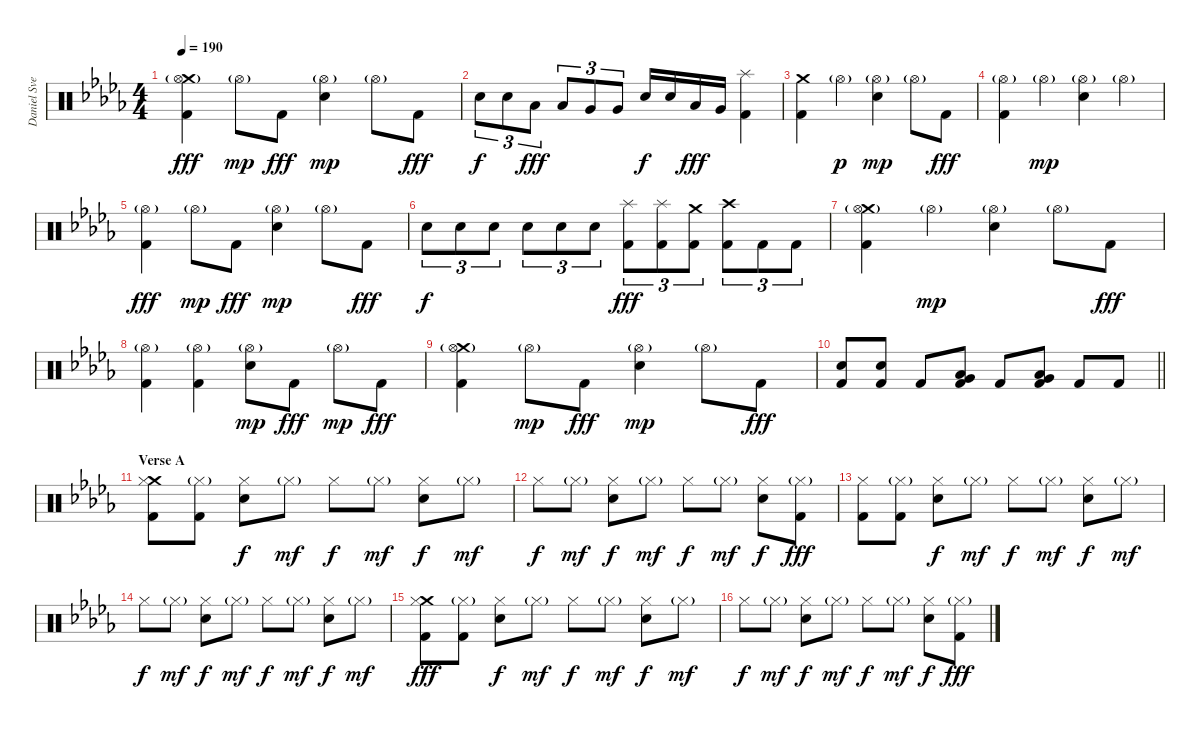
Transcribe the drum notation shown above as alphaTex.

\track ("Daniel Svensson" "Daniel Sve") {instrument percussion}
\staff {score}
\articulation defaults
\ts (4 4)
\tempo 190
\clef neutral
\ks db
("Crash medium (hit)" "Hi-Hat (open)"{g} "Kick (hit) 2").4{dy fff} "Hi-Hat (open)"{g}.8{dy mp} "Kick (hit) 2".8{dy fff} ("Hi-Hat (open)"{g} "Electric Snare (hit)").4{dy mp} "Hi-Hat (open)"{g}.8 "Kick (hit) 2".8{dy fff} |
"Electric Snare (hit)".8{tu (3 2) dy f} "Electric Snare (hit)".8{tu (3 2)} "Low Tom (hit)".8{tu (3 2) dy fff} "Low Tom (hit)".8{tu (3 2)} "Very Low Tom (hit)".8{tu (3 2)} "Very Low Tom (hit)".8{tu (3 2)} "Electric Snare (hit)".16{dy f} "Electric Snare (hit)".16 "Low Tom (hit)".16{dy fff} "Very Low Tom (hit)".16 ("Splash (hit)" "Kick (hit) 2").4 |
("Crash medium (hit)" "Kick (hit) 2").4 "Hi-Hat (open)"{g}.4{dy p} ("Hi-Hat (open)"{g} "Electric Snare (hit)").4{dy mp} "Hi-Hat (open)"{g}.8 "Kick (hit) 2".8{dy fff} |
("Hi-Hat (open)"{g} "Kick (hit) 2").4 "Hi-Hat (open)"{g}.4{dy mp} ("Hi-Hat (open)"{g} "Electric Snare (hit)").4 "Hi-Hat (open)"{g}.4 |
("Hi-Hat (open)"{g} "Kick (hit) 2").4{dy fff} "Hi-Hat (open)"{g}.8{dy mp} "Kick (hit) 2".8{dy fff} ("Hi-Hat (open)"{g} "Electric Snare (hit)").4{dy mp} "Hi-Hat (open)"{g}.8 "Kick (hit) 2".8{dy fff} |
"Electric Snare (hit)".8{tu (3 2) dy f} "Electric Snare (hit)".8{tu (3 2)} "Electric Snare (hit)".8{tu (3 2)} "Electric Snare (hit)".8{tu (3 2)} "Electric Snare (hit)".8{tu (3 2)} "Electric Snare (hit)".8{tu (3 2)} ("Splash (hit)" "Kick (hit) 2").8{tu (3 2) dy fff} ("Splash (hit)" "Kick (hit) 2").8{tu (3 2)} ("Crash medium (hit)" "Kick (hit) 2").8{tu (3 2)} ("Crash high (hit)" "Kick (hit) 2").8{tu (3 2)} "Kick (hit) 2".8{tu (3 2)} "Kick (hit) 2".8{tu (3 2)} |
("Crash medium (hit)" "Hi-Hat (open)"{g} "Kick (hit) 2").4 "Hi-Hat (open)"{g}.4{dy mp} ("Hi-Hat (open)"{g} "Electric Snare (hit)").4 "Hi-Hat (open)"{g}.8 "Kick (hit) 2".8{dy fff} |
("Hi-Hat (open)"{g} "Kick (hit) 2").4 ("Hi-Hat (open)"{g} "Kick (hit) 2").4 ("Hi-Hat (open)"{g} "Electric Snare (hit)").8{dy mp} "Kick (hit) 2".8{dy fff} "Hi-Hat (open)"{g}.8{dy mp} "Kick (hit) 2".8{dy fff} |
("Crash medium (hit)" "Hi-Hat (open)"{g} "Kick (hit) 2").4 "Hi-Hat (open)"{g}.8{dy mp} "Kick (hit) 2".8{dy fff} ("Hi-Hat (open)"{g} "Electric Snare (hit)").4{dy mp} "Hi-Hat (open)"{g}.8 "Kick (hit) 2".8{dy fff} |
\barLineRight lightlight
("Electric Snare (hit)" "Kick (hit) 2").8 ("Electric Snare (hit)" "Kick (hit) 2").8 "Kick (hit) 2".8 ("Low Tom (hit)" "Very Low Tom (hit)" "Kick (hit) 2").8 "Kick (hit) 2".8 ("Very Low Tom (hit)" "Low Floor Tom (hit)" "Kick (hit) 2").8 "Kick (hit) 2".8 "Kick (hit) 2".8 |
\section ("" "Verse A")
("Crash medium (hit)" "Hi-Hat (closed)" "Kick (hit) 2").8 ("Hi-Hat (closed)"{g} "Kick (hit) 2").8 ("Hi-Hat (closed)" "Electric Snare (hit)").8{dy f} "Hi-Hat (closed)"{g}.8{dy mf} "Hi-Hat (closed)".8{dy f} "Hi-Hat (closed)"{g}.8{dy mf} ("Hi-Hat (closed)" "Electric Snare (hit)").8{dy f} "Hi-Hat (closed)"{g}.8{dy mf} |
"Hi-Hat (closed)".8{dy f} "Hi-Hat (closed)"{g}.8{dy mf} ("Hi-Hat (closed)" "Electric Snare (hit)").8{dy f} "Hi-Hat (closed)"{g}.8{dy mf} "Hi-Hat (closed)".8{dy f} "Hi-Hat (closed)"{g}.8{dy mf} ("Hi-Hat (closed)" "Electric Snare (hit)").8{dy f} ("Hi-Hat (closed)"{g} "Kick (hit) 2").8{dy fff} |
("Hi-Hat (closed)" "Kick (hit) 2").8 ("Hi-Hat (closed)"{g} "Kick (hit) 2").8 ("Hi-Hat (closed)" "Electric Snare (hit)").8{dy f} "Hi-Hat (closed)"{g}.8{dy mf} "Hi-Hat (closed)".8{dy f} "Hi-Hat (closed)"{g}.8{dy mf} ("Hi-Hat (closed)" "Electric Snare (hit)").8{dy f} "Hi-Hat (closed)"{g}.8{dy mf} |
"Hi-Hat (closed)".8{dy f} "Hi-Hat (closed)"{g}.8{dy mf} ("Hi-Hat (closed)" "Electric Snare (hit)").8{dy f} "Hi-Hat (closed)"{g}.8{dy mf} "Hi-Hat (closed)".8{dy f} "Hi-Hat (closed)"{g}.8{dy mf} ("Hi-Hat (closed)" "Electric Snare (hit)").8{dy f} "Hi-Hat (closed)"{g}.8{dy mf} |
("Crash medium (hit)" "Hi-Hat (closed)" "Kick (hit) 2").8{dy fff} ("Hi-Hat (closed)"{g} "Kick (hit) 2").8 ("Hi-Hat (closed)" "Electric Snare (hit)").8{dy f} "Hi-Hat (closed)"{g}.8{dy mf} "Hi-Hat (closed)".8{dy f} "Hi-Hat (closed)"{g}.8{dy mf} ("Hi-Hat (closed)" "Electric Snare (hit)").8{dy f} "Hi-Hat (closed)"{g}.8{dy mf} |
"Hi-Hat (closed)".8{dy f} "Hi-Hat (closed)"{g}.8{dy mf} ("Hi-Hat (closed)" "Electric Snare (hit)").8{dy f} "Hi-Hat (closed)"{g}.8{dy mf} "Hi-Hat (closed)".8{dy f} "Hi-Hat (closed)"{g}.8{dy mf} ("Hi-Hat (closed)" "Electric Snare (hit)").8{dy f} ("Hi-Hat (closed)"{g} "Kick (hit) 2").8{dy fff}
